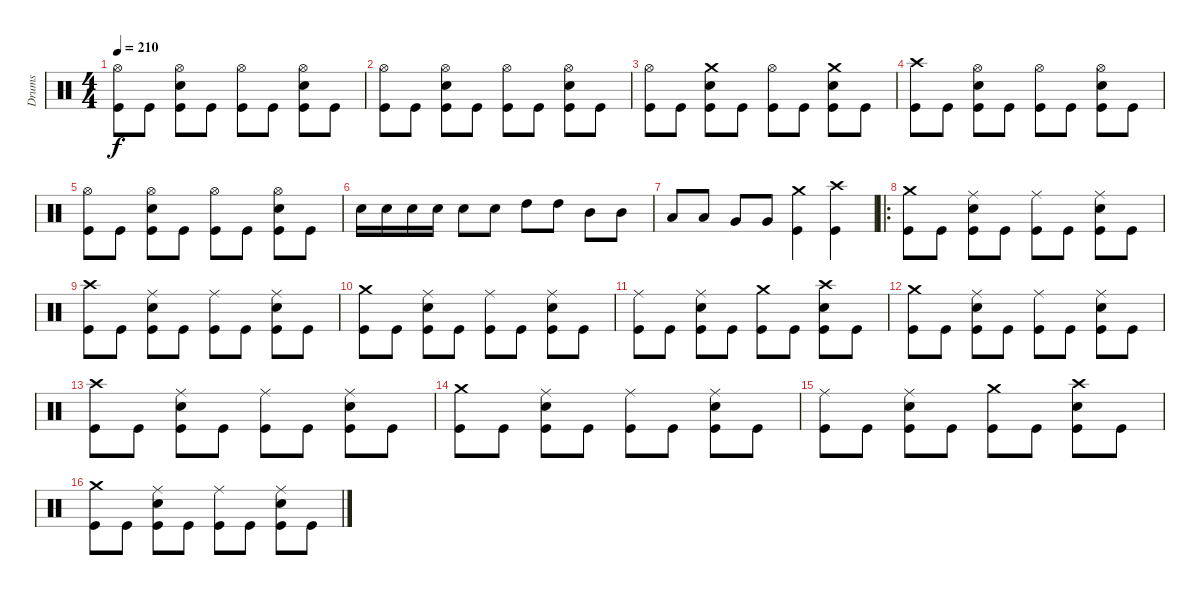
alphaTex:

\track ("Drums" "Drums") {instrument percussion}
\staff {score}
\articulation defaults
\ts (4 4)
\tempo 210
\clef neutral
\ks c
("Hi-Hat (open)" "Kick (hit)").8{dy f} "Kick (hit)".8 ("Hi-Hat (open)" "Electric Snare (hit)" "Kick (hit)").8 "Kick (hit)".8 ("Hi-Hat (open)" "Kick (hit)").8 "Kick (hit)".8 ("Hi-Hat (open)" "Electric Snare (hit)" "Kick (hit)").8 "Kick (hit)".8 |
("Hi-Hat (open)" "Kick (hit)").8 "Kick (hit)".8 ("Hi-Hat (open)" "Electric Snare (hit)" "Kick (hit)").8 "Kick (hit)".8 ("Hi-Hat (open)" "Kick (hit)").8 "Kick (hit)".8 ("Hi-Hat (open)" "Electric Snare (hit)" "Kick (hit)").8 "Kick (hit)".8 |
("Hi-Hat (open)" "Kick (hit)").8 "Kick (hit)".8 ("Crash medium (hit)" "Electric Snare (hit)" "Kick (hit)").8 "Kick (hit)".8 ("Hi-Hat (open)" "Kick (hit)").8 "Kick (hit)".8 ("Crash medium (hit)" "Electric Snare (hit)" "Kick (hit)").8 "Kick (hit)".8 |
("Crash high (hit)" "Kick (hit)").8 "Kick (hit)".8 ("Hi-Hat (open)" "Electric Snare (hit)" "Kick (hit)").8 "Kick (hit)".8 ("Hi-Hat (open)" "Kick (hit)").8 "Kick (hit)".8 ("Hi-Hat (open)" "Electric Snare (hit)" "Kick (hit)").8 "Kick (hit)".8 |
("Hi-Hat (open)" "Kick (hit)").8 "Kick (hit)".8 ("Hi-Hat (open)" "Electric Snare (hit)" "Kick (hit)").8 "Kick (hit)".8 ("Hi-Hat (open)" "Kick (hit)").8 "Kick (hit)".8 ("Hi-Hat (open)" "Electric Snare (hit)" "Kick (hit)").8 "Kick (hit)".8 |
"Electric Snare (hit)".16 "Electric Snare (hit)".16 "Electric Snare (hit)".16 "Electric Snare (hit)".16 "Electric Snare (hit)".8 "Electric Snare (hit)".8 "High Tom (hit)".8 "High Tom (hit)".8 "Mid Tom (hit)".8 "Mid Tom (hit)".8 |
"Low Tom (hit)".8 "Low Tom (hit)".8 "Very Low Tom (hit)".8 "Very Low Tom (hit)".8 ("Crash medium (hit)" "Kick (hit)").4 ("Crash high (hit)" "Kick (hit)").4 |
\ro
("Crash medium (hit)" "Kick (hit)").8 "Kick (hit)".8 ("Ride (middle)" "Electric Snare (hit)" "Kick (hit)").8 "Kick (hit)".8 ("Ride (middle)" "Kick (hit)").8 "Kick (hit)".8 ("Ride (middle)" "Electric Snare (hit)" "Kick (hit)").8 "Kick (hit)".8 |
("Crash high (hit)" "Kick (hit)").8 "Kick (hit)".8 ("Ride (middle)" "Electric Snare (hit)" "Kick (hit)").8 "Kick (hit)".8 ("Ride (middle)" "Kick (hit)").8 "Kick (hit)".8 ("Ride (middle)" "Electric Snare (hit)" "Kick (hit)").8 "Kick (hit)".8 |
("Crash medium (hit)" "Kick (hit)").8 "Kick (hit)".8 ("Ride (middle)" "Electric Snare (hit)" "Kick (hit)").8 "Kick (hit)".8 ("Ride (middle)" "Kick (hit)").8 "Kick (hit)".8 ("Ride (middle)" "Electric Snare (hit)" "Kick (hit)").8 "Kick (hit)".8 |
("Ride (middle)" "Kick (hit)").8 "Kick (hit)".8 ("Ride (middle)" "Electric Snare (hit)" "Kick (hit)").8 "Kick (hit)".8 ("Crash medium (hit)" "Kick (hit)").8 "Kick (hit)".8 ("Crash high (hit)" "Electric Snare (hit)" "Kick (hit)").8 "Kick (hit)".8 |
("Crash medium (hit)" "Kick (hit)").8 "Kick (hit)".8 ("Ride (middle)" "Electric Snare (hit)" "Kick (hit)").8 "Kick (hit)".8 ("Ride (middle)" "Kick (hit)").8 "Kick (hit)".8 ("Ride (middle)" "Electric Snare (hit)" "Kick (hit)").8 "Kick (hit)".8 |
("Crash high (hit)" "Kick (hit)").8 "Kick (hit)".8 ("Ride (middle)" "Electric Snare (hit)" "Kick (hit)").8 "Kick (hit)".8 ("Ride (middle)" "Kick (hit)").8 "Kick (hit)".8 ("Ride (middle)" "Electric Snare (hit)" "Kick (hit)").8 "Kick (hit)".8 |
("Crash medium (hit)" "Kick (hit)").8 "Kick (hit)".8 ("Ride (middle)" "Electric Snare (hit)" "Kick (hit)").8 "Kick (hit)".8 ("Ride (middle)" "Kick (hit)").8 "Kick (hit)".8 ("Ride (middle)" "Electric Snare (hit)" "Kick (hit)").8 "Kick (hit)".8 |
("Ride (middle)" "Kick (hit)").8 "Kick (hit)".8 ("Ride (middle)" "Electric Snare (hit)" "Kick (hit)").8 "Kick (hit)".8 ("Crash medium (hit)" "Kick (hit)").8 "Kick (hit)".8 ("Crash high (hit)" "Electric Snare (hit)" "Kick (hit)").8 "Kick (hit)".8 |
("Crash medium (hit)" "Kick (hit)").8 "Kick (hit)".8 ("Ride (middle)" "Electric Snare (hit)" "Kick (hit)").8 "Kick (hit)".8 ("Ride (middle)" "Kick (hit)").8 "Kick (hit)".8 ("Ride (middle)" "Electric Snare (hit)" "Kick (hit)").8 "Kick (hit)".8
